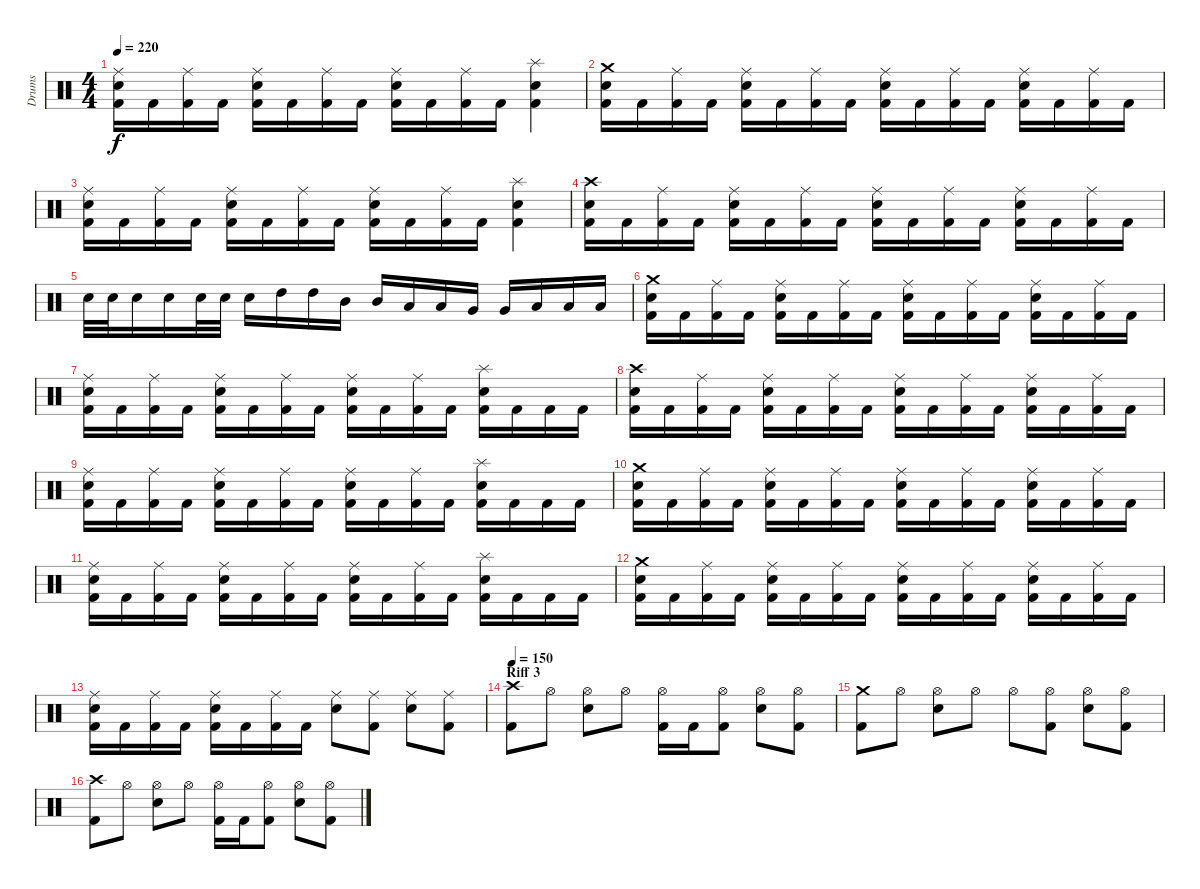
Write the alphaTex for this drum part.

\track ("Drums" "Drums") {instrument percussion}
\staff {score}
\articulation defaults
\ts (4 4)
\tempo 220
\clef neutral
\ks c
("Ride (middle)" "Electric Snare (hit)" "Kick (hit) 2").16{dy f} "Kick (hit) 2".16 ("Ride (middle)" "Kick (hit) 2").16 "Kick (hit) 2".16 ("Ride (middle)" "Electric Snare (hit)" "Kick (hit) 2").16 "Kick (hit) 2".16 ("Ride (middle)" "Kick (hit) 2").16 "Kick (hit) 2".16 ("Ride (middle)" "Electric Snare (hit)" "Kick (hit) 2").16 "Kick (hit) 2".16 ("Ride (middle)" "Kick (hit) 2").16 "Kick (hit) 2".16 ("Splash (hit)" "Electric Snare (hit)" "Kick (hit) 2").4 |
("Crash medium (hit)" "Electric Snare (hit)" "Kick (hit) 2").16 "Kick (hit) 2".16 ("Ride (middle)" "Kick (hit) 2").16 "Kick (hit) 2".16 ("Ride (middle)" "Electric Snare (hit)" "Kick (hit) 2").16 "Kick (hit) 2".16 ("Ride (middle)" "Kick (hit) 2").16 "Kick (hit) 2".16 ("Ride (middle)" "Electric Snare (hit)" "Kick (hit) 2").16 "Kick (hit) 2".16 ("Ride (middle)" "Kick (hit) 2").16 "Kick (hit) 2".16 ("Ride (middle)" "Electric Snare (hit)" "Kick (hit) 2").16 "Kick (hit) 2".16 ("Ride (middle)" "Kick (hit) 2").16 "Kick (hit) 2".16 |
("Ride (middle)" "Electric Snare (hit)" "Kick (hit) 2").16 "Kick (hit) 2".16 ("Ride (middle)" "Kick (hit) 2").16 "Kick (hit) 2".16 ("Ride (middle)" "Electric Snare (hit)" "Kick (hit) 2").16 "Kick (hit) 2".16 ("Ride (middle)" "Kick (hit) 2").16 "Kick (hit) 2".16 ("Ride (middle)" "Electric Snare (hit)" "Kick (hit) 2").16 "Kick (hit) 2".16 ("Ride (middle)" "Kick (hit) 2").16 "Kick (hit) 2".16 ("Splash (hit)" "Electric Snare (hit)" "Kick (hit) 2").4 |
("Crash high (hit)" "Electric Snare (hit)" "Kick (hit) 2").16 "Kick (hit) 2".16 ("Ride (middle)" "Kick (hit) 2").16 "Kick (hit) 2".16 ("Ride (middle)" "Electric Snare (hit)" "Kick (hit) 2").16 "Kick (hit) 2".16 ("Ride (middle)" "Kick (hit) 2").16 "Kick (hit) 2".16 ("Ride (middle)" "Electric Snare (hit)" "Kick (hit) 2").16 "Kick (hit) 2".16 ("Ride (middle)" "Kick (hit) 2").16 "Kick (hit) 2".16 ("Ride (middle)" "Electric Snare (hit)" "Kick (hit) 2").16 "Kick (hit) 2".16 ("Ride (middle)" "Kick (hit) 2").16 "Kick (hit) 2".16 |
"Electric Snare (hit)".32 "Electric Snare (hit)".32 "Electric Snare (hit)".16 "Electric Snare (hit)".16 "Electric Snare (hit)".32 "Electric Snare (hit)".32 "Electric Snare (hit)".16 "High Tom (hit)".16 "High Tom (hit)".16 "Mid Tom (hit)".16 "Mid Tom (hit)".16 "Low Tom (hit)".16 "Low Tom (hit)".16 "Very Low Tom (hit)".16 "Very Low Tom (hit)".16 "Low Floor Tom (hit)".16 "Low Floor Tom (hit)".16 "Low Floor Tom (hit)".16 |
("Crash medium (hit)" "Electric Snare (hit)" "Kick (hit) 2").16 "Kick (hit) 2".16 ("Ride (middle)" "Kick (hit) 2").16 "Kick (hit) 2".16 ("Ride (middle)" "Electric Snare (hit)" "Kick (hit) 2").16 "Kick (hit) 2".16 ("Ride (middle)" "Kick (hit) 2").16 "Kick (hit) 2".16 ("Ride (middle)" "Electric Snare (hit)" "Kick (hit) 2").16 "Kick (hit) 2".16 ("Ride (middle)" "Kick (hit) 2").16 "Kick (hit) 2".16 ("Ride (middle)" "Electric Snare (hit)" "Kick (hit) 2").16 "Kick (hit) 2".16 ("Ride (middle)" "Kick (hit) 2").16 "Kick (hit) 2".16 |
("Ride (middle)" "Electric Snare (hit)" "Kick (hit) 2").16 "Kick (hit) 2".16 ("Ride (middle)" "Kick (hit) 2").16 "Kick (hit) 2".16 ("Ride (middle)" "Electric Snare (hit)" "Kick (hit) 2").16 "Kick (hit) 2".16 ("Ride (middle)" "Kick (hit) 2").16 "Kick (hit) 2".16 ("Ride (middle)" "Electric Snare (hit)" "Kick (hit) 2").16 "Kick (hit) 2".16 ("Ride (middle)" "Kick (hit) 2").16 "Kick (hit) 2".16 ("Splash (hit)" "Electric Snare (hit)" "Kick (hit) 2").16 "Kick (hit) 2".16 "Kick (hit) 2".16 "Kick (hit) 2".16 |
("Crash high (hit)" "Electric Snare (hit)" "Kick (hit) 2").16 "Kick (hit) 2".16 ("Ride (middle)" "Kick (hit) 2").16 "Kick (hit) 2".16 ("Ride (middle)" "Electric Snare (hit)" "Kick (hit) 2").16 "Kick (hit) 2".16 ("Ride (middle)" "Kick (hit) 2").16 "Kick (hit) 2".16 ("Ride (middle)" "Electric Snare (hit)" "Kick (hit) 2").16 "Kick (hit) 2".16 ("Ride (middle)" "Kick (hit) 2").16 "Kick (hit) 2".16 ("Ride (middle)" "Electric Snare (hit)" "Kick (hit) 2").16 "Kick (hit) 2".16 ("Ride (middle)" "Kick (hit) 2").16 "Kick (hit) 2".16 |
("Ride (middle)" "Electric Snare (hit)" "Kick (hit) 2").16 "Kick (hit) 2".16 ("Ride (middle)" "Kick (hit) 2").16 "Kick (hit) 2".16 ("Ride (middle)" "Electric Snare (hit)" "Kick (hit) 2").16 "Kick (hit) 2".16 ("Ride (middle)" "Kick (hit) 2").16 "Kick (hit) 2".16 ("Ride (middle)" "Electric Snare (hit)" "Kick (hit) 2").16 "Kick (hit) 2".16 ("Ride (middle)" "Kick (hit) 2").16 "Kick (hit) 2".16 ("Splash (hit)" "Electric Snare (hit)" "Kick (hit) 2").16 "Kick (hit) 2".16 "Kick (hit) 2".16 "Kick (hit) 2".16 |
("Crash medium (hit)" "Electric Snare (hit)" "Kick (hit) 2").16 "Kick (hit) 2".16 ("Ride (middle)" "Kick (hit) 2").16 "Kick (hit) 2".16 ("Ride (middle)" "Electric Snare (hit)" "Kick (hit) 2").16 "Kick (hit) 2".16 ("Ride (middle)" "Kick (hit) 2").16 "Kick (hit) 2".16 ("Ride (middle)" "Electric Snare (hit)" "Kick (hit) 2").16 "Kick (hit) 2".16 ("Ride (middle)" "Kick (hit) 2").16 "Kick (hit) 2".16 ("Ride (middle)" "Electric Snare (hit)" "Kick (hit) 2").16 "Kick (hit) 2".16 ("Ride (middle)" "Kick (hit) 2").16 "Kick (hit) 2".16 |
("Ride (middle)" "Electric Snare (hit)" "Kick (hit) 2").16 "Kick (hit) 2".16 ("Ride (middle)" "Kick (hit) 2").16 "Kick (hit) 2".16 ("Ride (middle)" "Electric Snare (hit)" "Kick (hit) 2").16 "Kick (hit) 2".16 ("Ride (middle)" "Kick (hit) 2").16 "Kick (hit) 2".16 ("Ride (middle)" "Electric Snare (hit)" "Kick (hit) 2").16 "Kick (hit) 2".16 ("Ride (middle)" "Kick (hit) 2").16 "Kick (hit) 2".16 ("Splash (hit)" "Electric Snare (hit)" "Kick (hit) 2").16 "Kick (hit) 2".16 "Kick (hit) 2".16 "Kick (hit) 2".16 |
("Crash medium (hit)" "Electric Snare (hit)" "Kick (hit) 2").16 "Kick (hit) 2".16 ("Ride (middle)" "Kick (hit) 2").16 "Kick (hit) 2".16 ("Ride (middle)" "Electric Snare (hit)" "Kick (hit) 2").16 "Kick (hit) 2".16 ("Ride (middle)" "Kick (hit) 2").16 "Kick (hit) 2".16 ("Ride (middle)" "Electric Snare (hit)" "Kick (hit) 2").16 "Kick (hit) 2".16 ("Ride (middle)" "Kick (hit) 2").16 "Kick (hit) 2".16 ("Ride (middle)" "Electric Snare (hit)" "Kick (hit) 2").16 "Kick (hit) 2".16 ("Ride (middle)" "Kick (hit) 2").16 "Kick (hit) 2".16 |
("Ride (middle)" "Electric Snare (hit)" "Kick (hit) 2").16 "Kick (hit) 2".16 ("Ride (middle)" "Kick (hit) 2").16 "Kick (hit) 2".16 ("Ride (middle)" "Electric Snare (hit)" "Kick (hit) 2").16 "Kick (hit) 2".16 ("Ride (middle)" "Kick (hit) 2").16 "Kick (hit) 2".16 ("Ride (middle)" "Electric Snare (hit)").8 ("Ride (middle)" "Kick (hit) 2").8 ("Ride (middle)" "Electric Snare (hit)").8 ("Ride (middle)" "Kick (hit) 2").8 |
\section ("" "Riff 3")
\tempo 150
("Crash high (hit)" "Kick (hit) 2").8 "Hi-Hat (open)".8 ("Hi-Hat (open)" "Electric Snare (hit)").8 "Hi-Hat (open)".8 ("Hi-Hat (open)" "Kick (hit) 2").16 "Kick (hit) 2".16 ("Hi-Hat (open)" "Kick (hit) 2").8 ("Hi-Hat (open)" "Electric Snare (hit)").8 ("Hi-Hat (open)" "Kick (hit) 2").8 |
("Crash medium (hit)" "Kick (hit) 2").8 "Hi-Hat (open)".8 ("Hi-Hat (open)" "Electric Snare (hit)").8 "Hi-Hat (open)".8 "Hi-Hat (open)".8 ("Hi-Hat (open)" "Kick (hit) 2").8 ("Hi-Hat (open)" "Electric Snare (hit)").8 ("Hi-Hat (open)" "Kick (hit) 2").8 |
("Crash high (hit)" "Kick (hit) 2").8 "Hi-Hat (open)".8 ("Hi-Hat (open)" "Electric Snare (hit)").8 "Hi-Hat (open)".8 ("Hi-Hat (open)" "Kick (hit) 2").16 "Kick (hit) 2".16 ("Hi-Hat (open)" "Kick (hit) 2").8 ("Hi-Hat (open)" "Electric Snare (hit)").8 ("Hi-Hat (open)" "Kick (hit) 2").8
